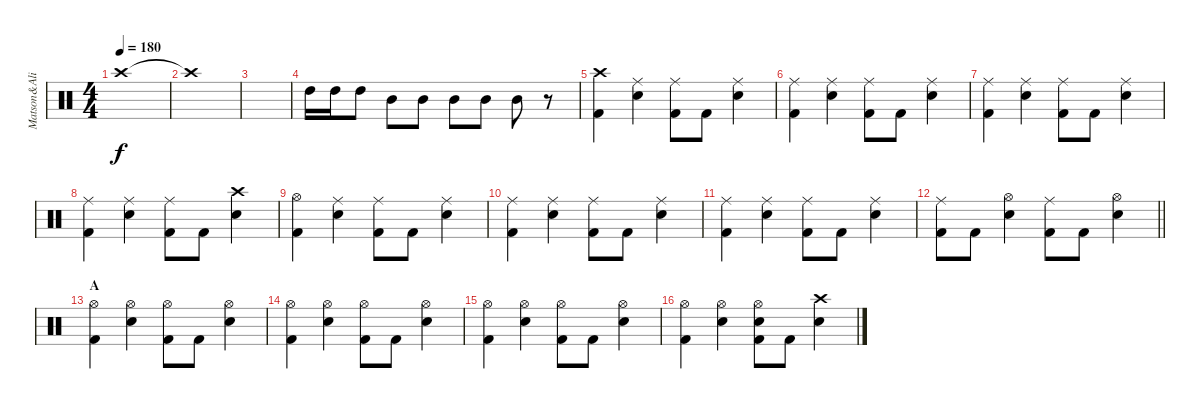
\track ("Matson&Ali" "Matson&Ali") {instrument percussion}
\staff {score}
\articulation defaults
\ts (4 4)
\tempo 180
\clef neutral
\ks c "Crash high (hit)"{t}.1{dy f}
|
"Crash high (hit)"{t}.1 |
|
"High Tom (hit)".16 "High Tom (hit)".16 "High Tom (hit)".8 "Mid Tom (hit)".8 "Mid Tom (hit)".8 "Mid Tom (hit)".8 "Mid Tom (hit)".8 "Mid Tom (hit)".8 r.8 |
("Crash high (hit)" "Kick (hit) 2").4 ("Ride (middle)" "Snare (hit) 2").4 ("Ride (middle)" "Kick (hit) 2").8 "Kick (hit) 2".8 ("Ride (middle)" "Snare (hit) 2").4 |
("Ride (middle)" "Kick (hit) 2").4 ("Ride (middle)" "Snare (hit) 2").4 ("Ride (middle)" "Kick (hit) 2").8 "Kick (hit) 2".8 ("Ride (middle)" "Snare (hit) 2").4 |
("Ride (middle)" "Kick (hit) 2").4 ("Ride (middle)" "Snare (hit) 2").4 ("Ride (middle)" "Kick (hit) 2").8 "Kick (hit) 2".8 ("Ride (middle)" "Snare (hit) 2").4 |
("Ride (middle)" "Kick (hit) 2").4 ("Ride (middle)" "Snare (hit) 2").4 ("Ride (middle)" "Kick (hit) 2").8 "Kick (hit) 2".8 ("Crash high (hit)" "Snare (hit) 2").4 |
("Hi-Hat (open)" "Kick (hit) 2").4 ("Ride (middle)" "Snare (hit) 2").4 ("Ride (middle)" "Kick (hit) 2").8 "Kick (hit) 2".8 ("Ride (middle)" "Snare (hit) 2").4 |
("Ride (middle)" "Kick (hit) 2").4 ("Ride (middle)" "Snare (hit) 2").4 ("Ride (middle)" "Kick (hit) 2").8 "Kick (hit) 2".8 ("Ride (middle)" "Snare (hit) 2").4 |
("Ride (middle)" "Kick (hit) 2").4 ("Ride (middle)" "Snare (hit) 2").4 ("Ride (middle)" "Kick (hit) 2").8 "Kick (hit) 2".8 ("Ride (middle)" "Snare (hit) 2").4 |
\barLineRight lightlight
("Ride (middle)" "Kick (hit) 2").8 "Kick (hit) 2".8 ("Hi-Hat (open)" "Snare (hit) 2").4 ("Ride (middle)" "Kick (hit) 2").8 "Kick (hit) 2".8 ("Hi-Hat (open)" "Snare (hit) 2").4 |
\section ("" "A")
("Hi-Hat (open)" "Kick (hit) 2").4 ("Hi-Hat (open)" "Snare (hit) 2").4 ("Hi-Hat (open)" "Kick (hit) 2").8 "Kick (hit) 2".8 ("Hi-Hat (open)" "Snare (hit) 2").4 |
("Hi-Hat (open)" "Kick (hit) 2").4 ("Hi-Hat (open)" "Snare (hit) 2").4 ("Hi-Hat (open)" "Kick (hit) 2").8 "Kick (hit) 2".8 ("Hi-Hat (open)" "Snare (hit) 2").4 |
("Hi-Hat (open)" "Kick (hit) 2").4 ("Hi-Hat (open)" "Snare (hit) 2").4 ("Hi-Hat (open)" "Kick (hit) 2").8 "Kick (hit) 2".8 ("Hi-Hat (open)" "Snare (hit) 2").4 |
("Hi-Hat (open)" "Kick (hit) 2").4 ("Hi-Hat (open)" "Snare (hit) 2").4 ("Hi-Hat (open)" "Snare (hit) 2" "Kick (hit) 2").8 "Kick (hit) 2".8 ("Crash high (hit)" "Snare (hit) 2").4
